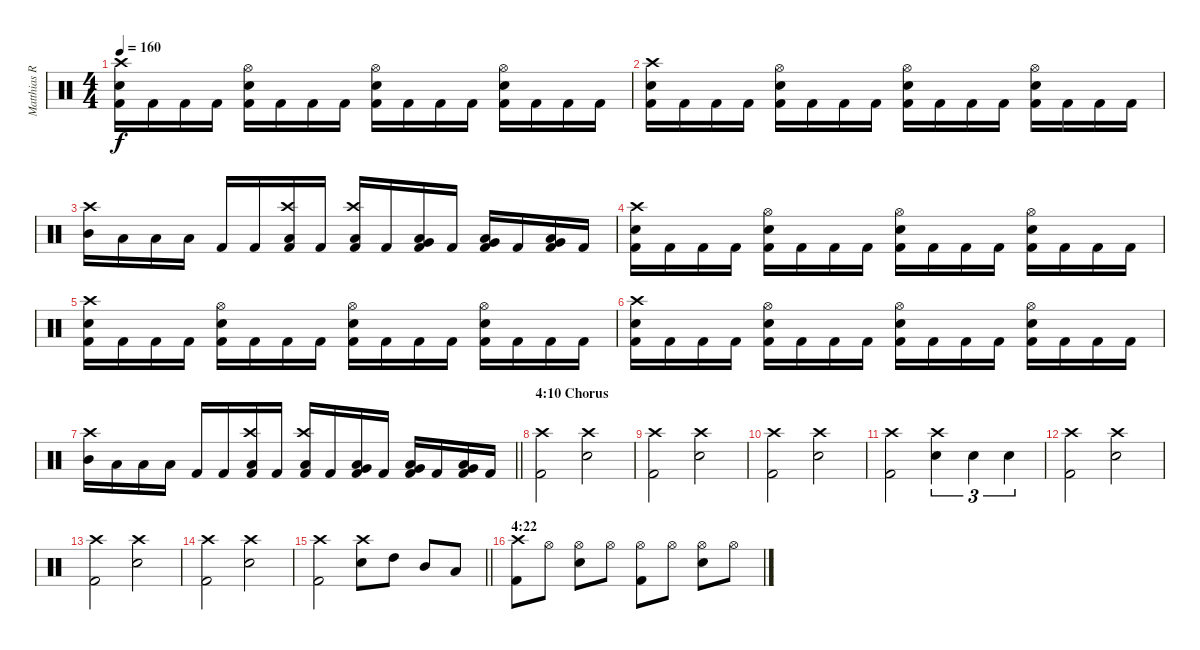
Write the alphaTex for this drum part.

\track ("Matthias R." "Matthias R") {instrument percussion}
\staff {score}
\articulation defaults
\ts (4 4)
\tempo 160
\clef neutral
\ks c
("Kick (hit) 2" "Snare (hit) 2" "Crash high (hit)").16{dy f} "Kick (hit) 2".16 "Kick (hit) 2".16 "Kick (hit) 2".16 ("Kick (hit) 2" "Snare (hit) 2" "Hi-Hat (open)").16 "Kick (hit) 2".16 "Kick (hit) 2".16 "Kick (hit) 2".16 ("Kick (hit) 2" "Snare (hit) 2" "Hi-Hat (open)").16 "Kick (hit) 2".16 "Kick (hit) 2".16 "Kick (hit) 2".16 ("Kick (hit) 2" "Snare (hit) 2" "Hi-Hat (open)").16 "Kick (hit) 2".16 "Kick (hit) 2".16 "Kick (hit) 2".16 |
("Kick (hit) 2" "Snare (hit) 2" "Crash high (hit)").16 "Kick (hit) 2".16 "Kick (hit) 2".16 "Kick (hit) 2".16 ("Kick (hit) 2" "Snare (hit) 2" "Hi-Hat (open)").16 "Kick (hit) 2".16 "Kick (hit) 2".16 "Kick (hit) 2".16 ("Kick (hit) 2" "Snare (hit) 2" "Hi-Hat (open)").16 "Kick (hit) 2".16 "Kick (hit) 2".16 "Kick (hit) 2".16 ("Kick (hit) 2" "Snare (hit) 2" "Hi-Hat (open)").16 "Kick (hit) 2".16 "Kick (hit) 2".16 "Kick (hit) 2".16 |
("Mid Tom (hit)" "Crash high (hit)").16 "Low Tom (hit)".16 "Low Tom (hit)".16 "Low Tom (hit)".16 "Kick (hit) 2".16 "Kick (hit) 2".16 ("Kick (hit) 2" "Low Tom (hit)" "Crash high (hit)").16 "Kick (hit) 2".16 ("Kick (hit) 2" "Low Tom (hit)" "Crash high (hit)").16 "Kick (hit) 2".16 ("Kick (hit) 2" "Very Low Tom (hit)" "Low Floor Tom (hit)").16 "Kick (hit) 2".16 ("Kick (hit) 2" "Very Low Tom (hit)" "Low Floor Tom (hit)").16 "Kick (hit) 2".16 ("Kick (hit) 2" "Very Low Tom (hit)" "Low Floor Tom (hit)").16 "Kick (hit) 2".16 |
("Kick (hit) 2" "Snare (hit) 2" "Crash high (hit)").16 "Kick (hit) 2".16 "Kick (hit) 2".16 "Kick (hit) 2".16 ("Kick (hit) 2" "Snare (hit) 2" "Hi-Hat (open)").16 "Kick (hit) 2".16 "Kick (hit) 2".16 "Kick (hit) 2".16 ("Kick (hit) 2" "Snare (hit) 2" "Hi-Hat (open)").16 "Kick (hit) 2".16 "Kick (hit) 2".16 "Kick (hit) 2".16 ("Kick (hit) 2" "Snare (hit) 2" "Hi-Hat (open)").16 "Kick (hit) 2".16 "Kick (hit) 2".16 "Kick (hit) 2".16 |
("Kick (hit) 2" "Snare (hit) 2" "Crash high (hit)").16 "Kick (hit) 2".16 "Kick (hit) 2".16 "Kick (hit) 2".16 ("Kick (hit) 2" "Snare (hit) 2" "Hi-Hat (open)").16 "Kick (hit) 2".16 "Kick (hit) 2".16 "Kick (hit) 2".16 ("Kick (hit) 2" "Snare (hit) 2" "Hi-Hat (open)").16 "Kick (hit) 2".16 "Kick (hit) 2".16 "Kick (hit) 2".16 ("Kick (hit) 2" "Snare (hit) 2" "Hi-Hat (open)").16 "Kick (hit) 2".16 "Kick (hit) 2".16 "Kick (hit) 2".16 |
("Kick (hit) 2" "Snare (hit) 2" "Crash high (hit)").16 "Kick (hit) 2".16 "Kick (hit) 2".16 "Kick (hit) 2".16 ("Kick (hit) 2" "Snare (hit) 2" "Hi-Hat (open)").16 "Kick (hit) 2".16 "Kick (hit) 2".16 "Kick (hit) 2".16 ("Kick (hit) 2" "Snare (hit) 2" "Hi-Hat (open)").16 "Kick (hit) 2".16 "Kick (hit) 2".16 "Kick (hit) 2".16 ("Kick (hit) 2" "Snare (hit) 2" "Hi-Hat (open)").16 "Kick (hit) 2".16 "Kick (hit) 2".16 "Kick (hit) 2".16 |
\barLineRight lightlight
("Mid Tom (hit)" "Crash high (hit)").16 "Low Tom (hit)".16 "Low Tom (hit)".16 "Low Tom (hit)".16 "Kick (hit) 2".16 "Kick (hit) 2".16 ("Kick (hit) 2" "Low Tom (hit)" "Crash high (hit)").16 "Kick (hit) 2".16 ("Kick (hit) 2" "Low Tom (hit)" "Crash high (hit)").16 "Kick (hit) 2".16 ("Kick (hit) 2" "Very Low Tom (hit)" "Low Floor Tom (hit)").16 "Kick (hit) 2".16 ("Kick (hit) 2" "Very Low Tom (hit)" "Low Floor Tom (hit)").16 "Kick (hit) 2".16 ("Kick (hit) 2" "Very Low Tom (hit)" "Low Floor Tom (hit)").16 "Kick (hit) 2".16 |
\section ("" "4:10 Chorus")
("Kick (hit) 2" "Crash high (hit)").2 ("Snare (hit) 2" "Crash high (hit)").2 |
("Kick (hit) 2" "Crash high (hit)").2 ("Snare (hit) 2" "Crash high (hit)").2 |
("Kick (hit) 2" "Crash high (hit)").2 ("Snare (hit) 2" "Crash high (hit)").2 |
("Kick (hit) 2" "Crash high (hit)").2 ("Snare (hit) 2" "Crash high (hit)").4{tu (3 2)} "Snare (hit) 2".4{tu (3 2)} "Snare (hit) 2".4{tu (3 2)} |
("Kick (hit) 2" "Crash high (hit)").2 ("Snare (hit) 2" "Crash high (hit)").2 |
("Kick (hit) 2" "Crash high (hit)").2 ("Snare (hit) 2" "Crash high (hit)").2 |
("Kick (hit) 2" "Crash high (hit)").2 ("Snare (hit) 2" "Crash high (hit)").2 |
\barLineRight lightlight
("Kick (hit) 2" "Crash high (hit)").2 ("Snare (hit) 2" "Crash high (hit)").8 "High Tom (hit)".8 "Mid Tom (hit)".8 "Low Tom (hit)".8 |
\section ("" "4:22")
("Kick (hit) 2" "Crash high (hit)").8 "Hi-Hat (open)".8 ("Snare (hit) 2" "Hi-Hat (open)").8 "Hi-Hat (open)".8 ("Kick (hit) 2" "Hi-Hat (open)").8 "Hi-Hat (open)".8 ("Snare (hit) 2" "Hi-Hat (open)").8 "Hi-Hat (open)".8
